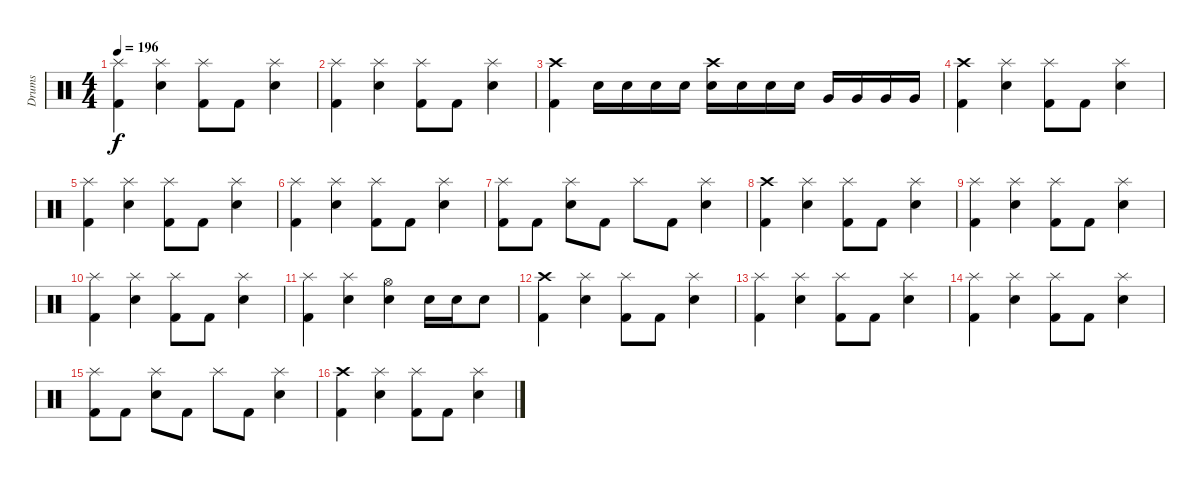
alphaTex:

\track ("Drums" "Drums") {instrument percussion}
\staff {score}
\articulation defaults
\ts (4 4)
\tempo 196
\clef neutral
\ks c
("Splash (hit)" "Kick (hit) 2").4{dy f} ("Splash (hit)" "Snare (hit) 2").4 ("Splash (hit)" "Kick (hit) 2").8 "Kick (hit) 2".8 ("Splash (hit)" "Snare (hit) 2").4 |
("Splash (hit)" "Kick (hit) 2").4 ("Splash (hit)" "Snare (hit) 2").4 ("Splash (hit)" "Kick (hit) 2").8 "Kick (hit) 2".8 ("Splash (hit)" "Snare (hit) 2").4 |
("Crash high (hit)" "Kick (hit) 2").4 "Snare (hit) 2".16 "Snare (hit) 2".16 "Snare (hit) 2".16 "Snare (hit) 2".16 ("Crash high (hit)" "Electric Snare (hit)").16 "Electric Snare (hit)".16 "Electric Snare (hit)".16 "Electric Snare (hit)".16 "Very Low Tom (hit)".16 "Very Low Tom (hit)".16 "Very Low Tom (hit)".16 "Very Low Tom (hit)".16 |
("Crash high (hit)" "Kick (hit) 2").4 ("Splash (hit)" "Snare (hit) 2").4 ("Splash (hit)" "Kick (hit) 2").8 "Kick (hit) 2".8 ("Splash (hit)" "Snare (hit) 2").4 |
("Splash (hit)" "Kick (hit) 2").4 ("Splash (hit)" "Snare (hit) 2").4 ("Splash (hit)" "Kick (hit) 2").8 "Kick (hit) 2".8 ("Splash (hit)" "Snare (hit) 2").4 |
("Splash (hit)" "Kick (hit) 2").4 ("Splash (hit)" "Snare (hit) 2").4 ("Splash (hit)" "Kick (hit) 2").8 "Kick (hit) 2".8 ("Splash (hit)" "Snare (hit) 2").4 |
("Splash (hit)" "Kick (hit) 2").8 "Kick (hit) 2".8 ("Splash (hit)" "Snare (hit) 2").8 "Kick (hit) 2".8 "Splash (hit)".8 "Kick (hit) 2".8 ("Splash (hit)" "Snare (hit) 2").4 |
("Crash high (hit)" "Kick (hit) 2").4 ("Splash (hit)" "Snare (hit) 2").4 ("Splash (hit)" "Kick (hit) 2").8 "Kick (hit) 2".8 ("Splash (hit)" "Snare (hit) 2").4 |
("Splash (hit)" "Kick (hit) 2").4 ("Splash (hit)" "Snare (hit) 2").4 ("Splash (hit)" "Kick (hit) 2").8 "Kick (hit) 2".8 ("Splash (hit)" "Snare (hit) 2").4 |
("Splash (hit)" "Kick (hit) 2").4 ("Splash (hit)" "Snare (hit) 2").4 ("Splash (hit)" "Kick (hit) 2").8 "Kick (hit) 2".8 ("Splash (hit)" "Snare (hit) 2").4 |
("Splash (hit)" "Kick (hit) 2").4 ("Splash (hit)" "Snare (hit) 2").4 ("Hi-Hat (open)" "Snare (hit) 2").4 "Snare (hit) 2".16 "Snare (hit) 2".16 "Snare (hit) 2".8 |
("Crash high (hit)" "Kick (hit) 2").4 ("Splash (hit)" "Snare (hit) 2").4 ("Splash (hit)" "Kick (hit) 2").8 "Kick (hit) 2".8 ("Splash (hit)" "Snare (hit) 2").4 |
("Splash (hit)" "Kick (hit) 2").4 ("Splash (hit)" "Snare (hit) 2").4 ("Splash (hit)" "Kick (hit) 2").8 "Kick (hit) 2".8 ("Splash (hit)" "Snare (hit) 2").4 |
("Splash (hit)" "Kick (hit) 2").4 ("Splash (hit)" "Snare (hit) 2").4 ("Splash (hit)" "Kick (hit) 2").8 "Kick (hit) 2".8 ("Splash (hit)" "Snare (hit) 2").4 |
("Splash (hit)" "Kick (hit) 2").8 "Kick (hit) 2".8 ("Splash (hit)" "Snare (hit) 2").8 "Kick (hit) 2".8 "Splash (hit)".8 "Kick (hit) 2".8 ("Splash (hit)" "Snare (hit) 2").4 |
("Crash high (hit)" "Kick (hit) 2").4 ("Splash (hit)" "Snare (hit) 2").4 ("Splash (hit)" "Kick (hit) 2").8 "Kick (hit) 2".8 ("Splash (hit)" "Snare (hit) 2").4
